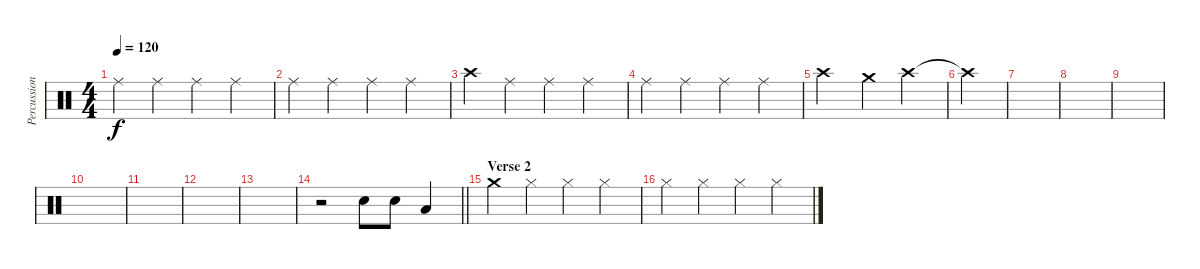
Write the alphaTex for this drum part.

\track ("Percussion" "Percussion") {instrument percussion}
\staff {score}
\articulation defaults
\ts (4 4)
\tempo 120
\clef neutral
\ks c "Ride (middle)".4{dy f} "Ride (middle)".4 "Ride (middle)".4 "Ride (middle)".4
|
"Ride (middle)".4 "Ride (middle)".4 "Ride (middle)".4 "Ride (middle)".4 |
"Crash high (hit)".4 "Ride (middle)".4 "Ride (middle)".4 "Ride (middle)".4 |
"Ride (middle)".4 "Ride (middle)".4 "Ride (middle)".4 "Ride (middle)".4 |
"Crash high (hit)".2 "Crash medium (hit)".4 "Crash high (hit)".4 |
"Crash high (hit)"{t}.4 |
|
|
|
|
|
|
|
\barLineRight lightlight
r.2 "Snare (hit) 2".8 "Snare (hit) 2".8 "Low Tom (hit)".4 |
\section ("" "Verse 2")
"Crash medium (hit)".4 "Hi-Hat (closed)".4 "Hi-Hat (closed)".4 "Hi-Hat (closed)".4 |
"Hi-Hat (closed)".4 "Hi-Hat (closed)".4 "Hi-Hat (closed)".4 "Hi-Hat (closed)".4
